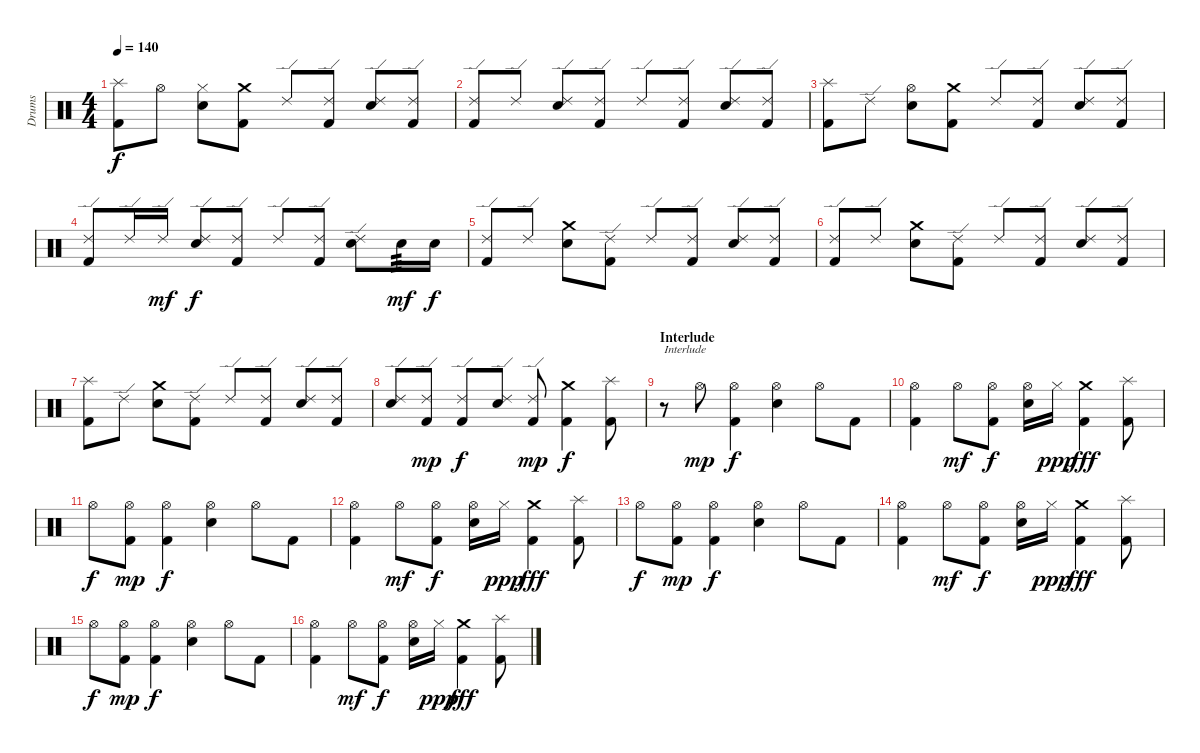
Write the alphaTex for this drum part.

\track ("Drums" "Drums") {instrument percussion}
\staff {score}
\articulation defaults
\ts (4 4)
\tempo 140
\clef neutral
\ks c
("Splash (hit)" "Kick (hit) 2").8{dy f} "Hi-Hat (open)".8 ("Hi-Hat (closed)" "Snare (hit) 2").8 ("Crash medium (hit)" "Kick (hit) 2").8 "Ride (edge) 2".8 ("Ride (edge) 2" "Kick (hit) 2").8 ("Ride (edge) 2" "Snare (hit) 2").8 ("Ride (edge) 2" "Kick (hit) 2").8 |
("Ride (edge) 2" "Kick (hit) 2").8 "Ride (edge) 2".8 ("Ride (edge) 2" "Snare (hit) 2").8 ("Ride (edge) 2" "Kick (hit) 2").8 "Ride (edge) 2".8 ("Ride (edge) 2" "Kick (hit) 2").8 ("Ride (edge) 2" "Snare (hit) 2").8 ("Ride (edge) 2" "Kick (hit) 2").8 |
("Splash (hit)" "Kick (hit) 2").8 "Ride (edge) 2".8 ("Hi-Hat (open)" "Snare (hit) 2").8 ("Crash medium (hit)" "Kick (hit) 2").8 "Ride (edge) 2".8 ("Ride (edge) 2" "Kick (hit) 2").8 ("Ride (edge) 2" "Snare (hit) 2").8 ("Ride (edge) 2" "Kick (hit) 2").8 |
("Ride (edge) 2" "Kick (hit) 2").8 "Ride (edge) 2".16 "Ride (edge) 2".16{dy mf} ("Ride (edge) 2" "Snare (hit) 2").8{dy f} ("Ride (edge) 2" "Kick (hit) 2").8 "Ride (edge) 2".8 ("Ride (edge) 2" "Kick (hit) 2").8 ("Ride (edge) 2" "Snare (hit) 2").8 "Snare (hit) 2".16{tp 3 dy mf} "Snare (hit) 2".16{dy f} |
("Ride (edge) 2" "Kick (hit) 2").8 "Ride (edge) 2".8 ("Crash medium (hit)" "Snare (hit) 2").8 ("Ride (edge) 2" "Kick (hit) 2").8 "Ride (edge) 2".8 ("Ride (edge) 2" "Kick (hit) 2").8 ("Ride (edge) 2" "Snare (hit) 2").8 ("Ride (edge) 2" "Kick (hit) 2").8 |
("Ride (edge) 2" "Kick (hit) 2").8 "Ride (edge) 2".8 ("Crash medium (hit)" "Snare (hit) 2").8 ("Ride (edge) 2" "Kick (hit) 2").8 "Ride (edge) 2".8 ("Ride (edge) 2" "Kick (hit) 2").8 ("Ride (edge) 2" "Snare (hit) 2").8 ("Ride (edge) 2" "Kick (hit) 2").8 |
("Splash (hit)" "Kick (hit) 2").8 "Ride (edge) 2".8 ("Crash medium (hit)" "Snare (hit) 2").8 ("Ride (edge) 2" "Kick (hit) 2").8 "Ride (edge) 2".8 ("Ride (edge) 2" "Kick (hit) 2").8 ("Ride (edge) 2" "Snare (hit) 2").8 ("Ride (edge) 2" "Kick (hit) 2").8 |
("Ride (edge) 2" "Snare (hit) 2").8 ("Ride (edge) 2" "Kick (hit) 2").8{dy mp} ("Ride (edge) 2" "Kick (hit) 2").8{dy f} ("Ride (edge) 2" "Snare (hit) 2").8 ("Ride (edge) 2" "Kick (hit) 2").8{dy mp} ("Crash medium (hit)" "Kick (hit) 2").4{dy f} ("Splash (hit)" "Kick (hit) 2").8 |
\section ("" "Interlude")
r.8{txt "Interlude"} "Hi-Hat (open)".8{dy mp} ("Hi-Hat (open)" "Kick (hit) 2").4{dy f} ("Hi-Hat (open)" "Snare (hit) 2").4 "Hi-Hat (open)".8 "Kick (hit) 2".8 |
("Hi-Hat (open)" "Kick (hit) 2").4 "Hi-Hat (open)".8{dy mf} ("Hi-Hat (open)" "Kick (hit) 2").8{dy f} ("Hi-Hat (open)" "Snare (hit) 2").16 "Hi-Hat (closed)".16{dy ppp} ("Crash medium (hit)" "Kick (hit) 2").4{dy fff} ("Splash (hit)" "Kick (hit) 2").8 |
"Hi-Hat (open)".8{dy f} ("Hi-Hat (open)" "Kick (hit) 2").8{dy mp} ("Hi-Hat (open)" "Kick (hit) 2").4{dy f} ("Hi-Hat (open)" "Snare (hit) 2").4 "Hi-Hat (open)".8 "Kick (hit) 2".8 |
("Hi-Hat (open)" "Kick (hit) 2").4 "Hi-Hat (open)".8{dy mf} ("Hi-Hat (open)" "Kick (hit) 2").8{dy f} ("Hi-Hat (open)" "Snare (hit) 2").16 "Hi-Hat (closed)".16{dy ppp} ("Crash medium (hit)" "Kick (hit) 2").4{dy fff} ("Splash (hit)" "Kick (hit) 2").8 |
"Hi-Hat (open)".8{dy f} ("Hi-Hat (open)" "Kick (hit) 2").8{dy mp} ("Hi-Hat (open)" "Kick (hit) 2").4{dy f} ("Hi-Hat (open)" "Snare (hit) 2").4 "Hi-Hat (open)".8 "Kick (hit) 2".8 |
("Hi-Hat (open)" "Kick (hit) 2").4 "Hi-Hat (open)".8{dy mf} ("Hi-Hat (open)" "Kick (hit) 2").8{dy f} ("Hi-Hat (open)" "Snare (hit) 2").16 "Hi-Hat (closed)".16{dy ppp} ("Crash medium (hit)" "Kick (hit) 2").4{dy fff} ("Splash (hit)" "Kick (hit) 2").8 |
"Hi-Hat (open)".8{dy f} ("Hi-Hat (open)" "Kick (hit) 2").8{dy mp} ("Hi-Hat (open)" "Kick (hit) 2").4{dy f} ("Hi-Hat (open)" "Snare (hit) 2").4 "Hi-Hat (open)".8 "Kick (hit) 2".8 |
("Hi-Hat (open)" "Kick (hit) 2").4 "Hi-Hat (open)".8{dy mf} ("Hi-Hat (open)" "Kick (hit) 2").8{dy f} ("Hi-Hat (open)" "Snare (hit) 2").16 "Hi-Hat (closed)".16{dy ppp} ("Crash medium (hit)" "Kick (hit) 2").4{dy fff} ("Splash (hit)" "Kick (hit) 2").8
